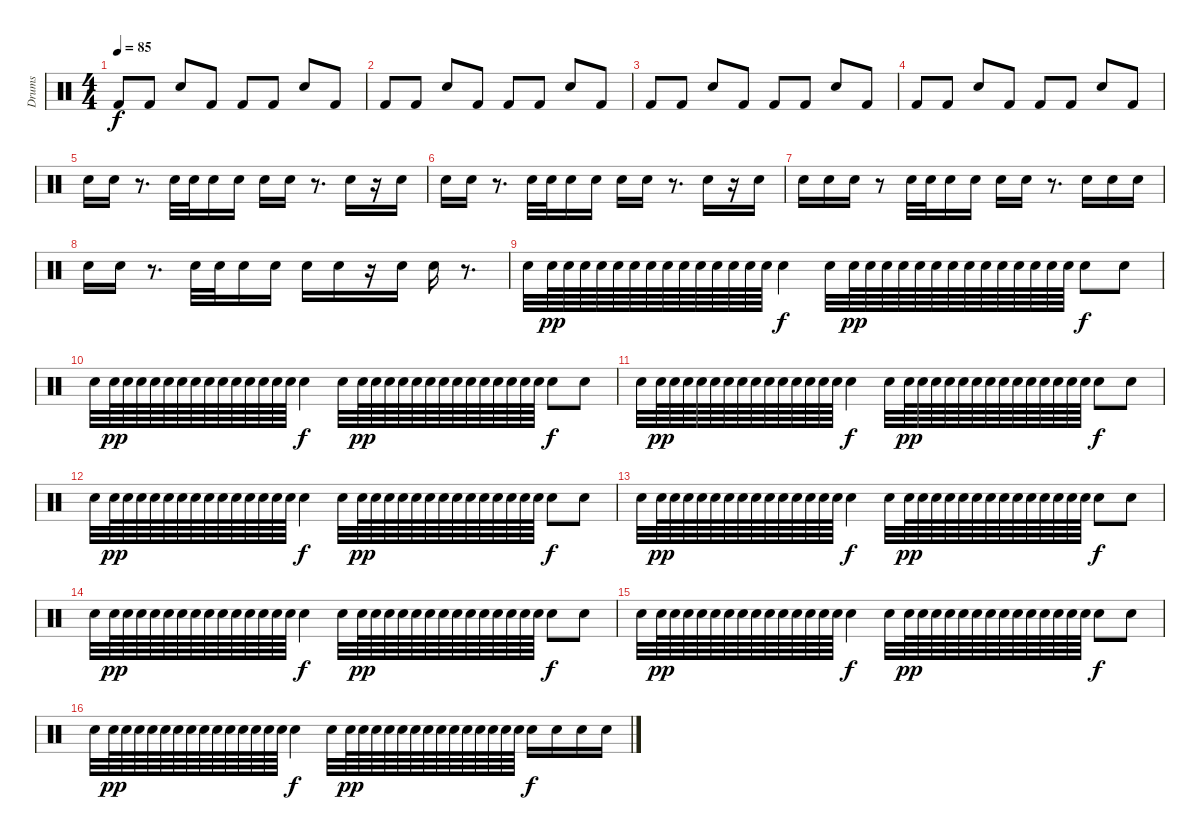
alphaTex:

\track ("Drums" "Drums") {instrument percussion}
\staff {score}
\articulation defaults
\ts (4 4)
\tempo 85
\clef neutral
\ks c "Kick (hit) 2".8{dy f} "Kick (hit) 2".8 "Electric Snare (hit)".8 "Kick (hit) 2".8 "Kick (hit) 2".8 "Kick (hit) 2".8 "Electric Snare (hit)".8 "Kick (hit) 2".8
|
"Kick (hit) 2".8 "Kick (hit) 2".8 "Electric Snare (hit)".8 "Kick (hit) 2".8 "Kick (hit) 2".8 "Kick (hit) 2".8 "Electric Snare (hit)".8 "Kick (hit) 2".8 |
"Kick (hit) 2".8 "Kick (hit) 2".8 "Electric Snare (hit)".8 "Kick (hit) 2".8 "Kick (hit) 2".8 "Kick (hit) 2".8 "Electric Snare (hit)".8 "Kick (hit) 2".8 |
"Kick (hit) 2".8 "Kick (hit) 2".8 "Electric Snare (hit)".8 "Kick (hit) 2".8 "Kick (hit) 2".8 "Kick (hit) 2".8 "Electric Snare (hit)".8 "Kick (hit) 2".8 |
"Electric Snare (hit)".16 "Electric Snare (hit)".16 r.8{d} "Electric Snare (hit)".32 "Electric Snare (hit)".32 "Electric Snare (hit)".16 "Electric Snare (hit)".16 "Electric Snare (hit)".16 "Electric Snare (hit)".16 r.8{d} "Electric Snare (hit)".16 r.16 "Electric Snare (hit)".16 |
"Electric Snare (hit)".16 "Electric Snare (hit)".16 r.8{d} "Electric Snare (hit)".32 "Electric Snare (hit)".32 "Electric Snare (hit)".16 "Electric Snare (hit)".16 "Electric Snare (hit)".16 "Electric Snare (hit)".16 r.8{d} "Electric Snare (hit)".16 r.16 "Electric Snare (hit)".16 |
"Electric Snare (hit)".16 "Electric Snare (hit)".16 "Electric Snare (hit)".16 r.8 "Electric Snare (hit)".32 "Electric Snare (hit)".32 "Electric Snare (hit)".16 "Electric Snare (hit)".16 "Electric Snare (hit)".16 "Electric Snare (hit)".16 r.8{d} "Electric Snare (hit)".16 "Electric Snare (hit)".16 "Electric Snare (hit)".16 |
"Electric Snare (hit)".16 "Electric Snare (hit)".16 r.8{d} "Electric Snare (hit)".32 "Electric Snare (hit)".32 "Electric Snare (hit)".16 "Electric Snare (hit)".16 "Electric Snare (hit)".16 "Electric Snare (hit)".16 r.16 "Electric Snare (hit)".16 "Electric Snare (hit)".16 r.8{d} |
"Electric Snare (hit)".32 "Electric Snare (hit)".64{dy pp} "Electric Snare (hit)".64 "Electric Snare (hit)".64 "Electric Snare (hit)".64 "Electric Snare (hit)".64 "Electric Snare (hit)".64 "Electric Snare (hit)".64 "Electric Snare (hit)".64 "Electric Snare (hit)".64 "Electric Snare (hit)".64 "Electric Snare (hit)".64 "Electric Snare (hit)".64 "Electric Snare (hit)".64 "Electric Snare (hit)".64 "Electric Snare (hit)".4{dy f} "Electric Snare (hit)".32 "Electric Snare (hit)".64{dy pp} "Electric Snare (hit)".64 "Electric Snare (hit)".64 "Electric Snare (hit)".64 "Electric Snare (hit)".64 "Electric Snare (hit)".64 "Electric Snare (hit)".64 "Electric Snare (hit)".64 "Electric Snare (hit)".64 "Electric Snare (hit)".64 "Electric Snare (hit)".64 "Electric Snare (hit)".64 "Electric Snare (hit)".64 "Electric Snare (hit)".64 "Electric Snare (hit)".8{dy f} "Electric Snare (hit)".8 |
"Electric Snare (hit)".32 "Electric Snare (hit)".64{dy pp} "Electric Snare (hit)".64 "Electric Snare (hit)".64 "Electric Snare (hit)".64 "Electric Snare (hit)".64 "Electric Snare (hit)".64 "Electric Snare (hit)".64 "Electric Snare (hit)".64 "Electric Snare (hit)".64 "Electric Snare (hit)".64 "Electric Snare (hit)".64 "Electric Snare (hit)".64 "Electric Snare (hit)".64 "Electric Snare (hit)".64 "Electric Snare (hit)".4{dy f} "Electric Snare (hit)".32 "Electric Snare (hit)".64{dy pp} "Electric Snare (hit)".64 "Electric Snare (hit)".64 "Electric Snare (hit)".64 "Electric Snare (hit)".64 "Electric Snare (hit)".64 "Electric Snare (hit)".64 "Electric Snare (hit)".64 "Electric Snare (hit)".64 "Electric Snare (hit)".64 "Electric Snare (hit)".64 "Electric Snare (hit)".64 "Electric Snare (hit)".64 "Electric Snare (hit)".64 "Electric Snare (hit)".8{dy f} "Electric Snare (hit)".8 |
"Electric Snare (hit)".32 "Electric Snare (hit)".64{dy pp} "Electric Snare (hit)".64 "Electric Snare (hit)".64 "Electric Snare (hit)".64 "Electric Snare (hit)".64 "Electric Snare (hit)".64 "Electric Snare (hit)".64 "Electric Snare (hit)".64 "Electric Snare (hit)".64 "Electric Snare (hit)".64 "Electric Snare (hit)".64 "Electric Snare (hit)".64 "Electric Snare (hit)".64 "Electric Snare (hit)".64 "Electric Snare (hit)".4{dy f} "Electric Snare (hit)".32 "Electric Snare (hit)".64{dy pp} "Electric Snare (hit)".64 "Electric Snare (hit)".64 "Electric Snare (hit)".64 "Electric Snare (hit)".64 "Electric Snare (hit)".64 "Electric Snare (hit)".64 "Electric Snare (hit)".64 "Electric Snare (hit)".64 "Electric Snare (hit)".64 "Electric Snare (hit)".64 "Electric Snare (hit)".64 "Electric Snare (hit)".64 "Electric Snare (hit)".64 "Electric Snare (hit)".8{dy f} "Electric Snare (hit)".8 |
"Electric Snare (hit)".32 "Electric Snare (hit)".64{dy pp} "Electric Snare (hit)".64 "Electric Snare (hit)".64 "Electric Snare (hit)".64 "Electric Snare (hit)".64 "Electric Snare (hit)".64 "Electric Snare (hit)".64 "Electric Snare (hit)".64 "Electric Snare (hit)".64 "Electric Snare (hit)".64 "Electric Snare (hit)".64 "Electric Snare (hit)".64 "Electric Snare (hit)".64 "Electric Snare (hit)".64 "Electric Snare (hit)".4{dy f} "Electric Snare (hit)".32 "Electric Snare (hit)".64{dy pp} "Electric Snare (hit)".64 "Electric Snare (hit)".64 "Electric Snare (hit)".64 "Electric Snare (hit)".64 "Electric Snare (hit)".64 "Electric Snare (hit)".64 "Electric Snare (hit)".64 "Electric Snare (hit)".64 "Electric Snare (hit)".64 "Electric Snare (hit)".64 "Electric Snare (hit)".64 "Electric Snare (hit)".64 "Electric Snare (hit)".64 "Electric Snare (hit)".8{dy f} "Electric Snare (hit)".8 |
"Electric Snare (hit)".32 "Electric Snare (hit)".64{dy pp} "Electric Snare (hit)".64 "Electric Snare (hit)".64 "Electric Snare (hit)".64 "Electric Snare (hit)".64 "Electric Snare (hit)".64 "Electric Snare (hit)".64 "Electric Snare (hit)".64 "Electric Snare (hit)".64 "Electric Snare (hit)".64 "Electric Snare (hit)".64 "Electric Snare (hit)".64 "Electric Snare (hit)".64 "Electric Snare (hit)".64 "Electric Snare (hit)".4{dy f} "Electric Snare (hit)".32 "Electric Snare (hit)".64{dy pp} "Electric Snare (hit)".64 "Electric Snare (hit)".64 "Electric Snare (hit)".64 "Electric Snare (hit)".64 "Electric Snare (hit)".64 "Electric Snare (hit)".64 "Electric Snare (hit)".64 "Electric Snare (hit)".64 "Electric Snare (hit)".64 "Electric Snare (hit)".64 "Electric Snare (hit)".64 "Electric Snare (hit)".64 "Electric Snare (hit)".64 "Electric Snare (hit)".8{dy f} "Electric Snare (hit)".8 |
"Electric Snare (hit)".32 "Electric Snare (hit)".64{dy pp} "Electric Snare (hit)".64 "Electric Snare (hit)".64 "Electric Snare (hit)".64 "Electric Snare (hit)".64 "Electric Snare (hit)".64 "Electric Snare (hit)".64 "Electric Snare (hit)".64 "Electric Snare (hit)".64 "Electric Snare (hit)".64 "Electric Snare (hit)".64 "Electric Snare (hit)".64 "Electric Snare (hit)".64 "Electric Snare (hit)".64 "Electric Snare (hit)".4{dy f} "Electric Snare (hit)".32 "Electric Snare (hit)".64{dy pp} "Electric Snare (hit)".64 "Electric Snare (hit)".64 "Electric Snare (hit)".64 "Electric Snare (hit)".64 "Electric Snare (hit)".64 "Electric Snare (hit)".64 "Electric Snare (hit)".64 "Electric Snare (hit)".64 "Electric Snare (hit)".64 "Electric Snare (hit)".64 "Electric Snare (hit)".64 "Electric Snare (hit)".64 "Electric Snare (hit)".64 "Electric Snare (hit)".8{dy f} "Electric Snare (hit)".8 |
"Electric Snare (hit)".32 "Electric Snare (hit)".64{dy pp} "Electric Snare (hit)".64 "Electric Snare (hit)".64 "Electric Snare (hit)".64 "Electric Snare (hit)".64 "Electric Snare (hit)".64 "Electric Snare (hit)".64 "Electric Snare (hit)".64 "Electric Snare (hit)".64 "Electric Snare (hit)".64 "Electric Snare (hit)".64 "Electric Snare (hit)".64 "Electric Snare (hit)".64 "Electric Snare (hit)".64 "Electric Snare (hit)".4{dy f} "Electric Snare (hit)".32 "Electric Snare (hit)".64{dy pp} "Electric Snare (hit)".64 "Electric Snare (hit)".64 "Electric Snare (hit)".64 "Electric Snare (hit)".64 "Electric Snare (hit)".64 "Electric Snare (hit)".64 "Electric Snare (hit)".64 "Electric Snare (hit)".64 "Electric Snare (hit)".64 "Electric Snare (hit)".64 "Electric Snare (hit)".64 "Electric Snare (hit)".64 "Electric Snare (hit)".64 "Electric Snare (hit)".8{dy f} "Electric Snare (hit)".8 |
"Electric Snare (hit)".32 "Electric Snare (hit)".64{dy pp} "Electric Snare (hit)".64 "Electric Snare (hit)".64 "Electric Snare (hit)".64 "Electric Snare (hit)".64 "Electric Snare (hit)".64 "Electric Snare (hit)".64 "Electric Snare (hit)".64 "Electric Snare (hit)".64 "Electric Snare (hit)".64 "Electric Snare (hit)".64 "Electric Snare (hit)".64 "Electric Snare (hit)".64 "Electric Snare (hit)".64 "Electric Snare (hit)".4{dy f} "Electric Snare (hit)".32 "Electric Snare (hit)".64{dy pp} "Electric Snare (hit)".64 "Electric Snare (hit)".64 "Electric Snare (hit)".64 "Electric Snare (hit)".64 "Electric Snare (hit)".64 "Electric Snare (hit)".64 "Electric Snare (hit)".64 "Electric Snare (hit)".64 "Electric Snare (hit)".64 "Electric Snare (hit)".64 "Electric Snare (hit)".64 "Electric Snare (hit)".64 "Electric Snare (hit)".64 "Electric Snare (hit)".16{dy f} "Electric Snare (hit)".16 "Electric Snare (hit)".16 "Electric Snare (hit)".16
